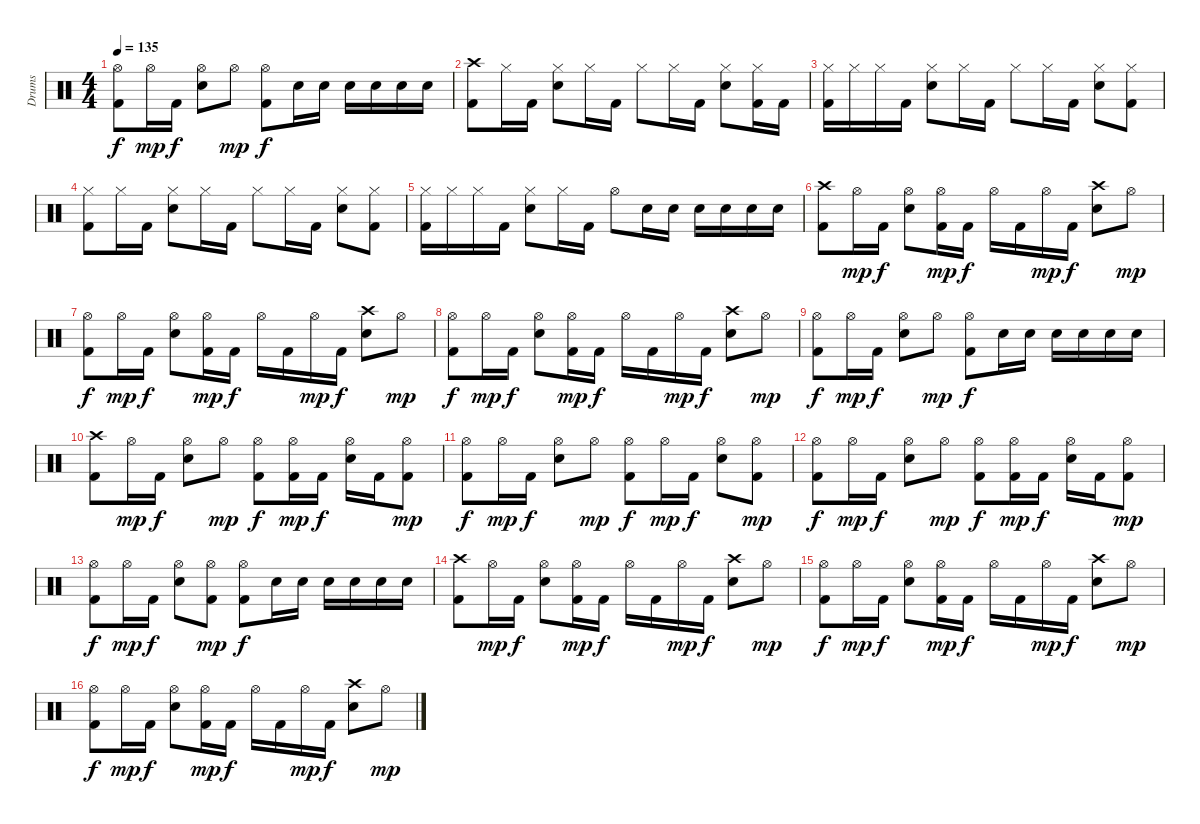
\track ("Drums" "Drums") {instrument percussion}
\staff {score}
\articulation defaults
\ts (4 4)
\tempo 135
\clef neutral
\ks c
("Hi-Hat (open)" "Kick (hit) 2").8{dy f} "Hi-Hat (open)".16{dy mp} "Kick (hit) 2".16{dy f} ("Hi-Hat (open)" "Electric Snare (hit)").8 "Hi-Hat (open)".8{dy mp} ("Hi-Hat (open)" "Kick (hit) 2").8{dy f} "Electric Snare (hit)".16 "Electric Snare (hit)".16 "Electric Snare (hit)".16 "Electric Snare (hit)".16 "Electric Snare (hit)".16 "Electric Snare (hit)".16 |
("Crash high (hit)" "Kick (hit) 2").8 "Hi-Hat (closed)".16 "Kick (hit) 2".16 ("Hi-Hat (closed)" "Electric Snare (hit)").8 "Hi-Hat (closed)".16 "Kick (hit) 2".16 "Hi-Hat (closed)".8 "Hi-Hat (closed)".16 "Kick (hit) 2".16 ("Hi-Hat (closed)" "Electric Snare (hit)").8 ("Hi-Hat (closed)" "Kick (hit) 2").16 "Kick (hit) 2".16 |
("Hi-Hat (closed)" "Kick (hit) 2").16 "Hi-Hat (closed)".16 "Hi-Hat (closed)".16 "Kick (hit) 2".16 ("Hi-Hat (closed)" "Electric Snare (hit)").8 "Hi-Hat (closed)".16 "Kick (hit) 2".16 "Hi-Hat (closed)".8 "Hi-Hat (closed)".16 "Kick (hit) 2".16 ("Hi-Hat (closed)" "Electric Snare (hit)").8 ("Hi-Hat (closed)" "Kick (hit) 2").8 |
("Hi-Hat (closed)" "Kick (hit) 2").8 "Hi-Hat (closed)".16 "Kick (hit) 2".16 ("Hi-Hat (closed)" "Electric Snare (hit)").8 "Hi-Hat (closed)".16 "Kick (hit) 2".16 "Hi-Hat (closed)".8 "Hi-Hat (closed)".16 "Kick (hit) 2".16 ("Hi-Hat (closed)" "Electric Snare (hit)").8 ("Hi-Hat (closed)" "Kick (hit) 2").8 |
("Hi-Hat (closed)" "Kick (hit) 2").16 "Hi-Hat (closed)".16 "Hi-Hat (closed)".16 "Kick (hit) 2".16 ("Hi-Hat (closed)" "Electric Snare (hit)").8 "Hi-Hat (closed)".16 "Kick (hit) 2".16 "Hi-Hat (open)".8 "Electric Snare (hit)".16 "Electric Snare (hit)".16 "Electric Snare (hit)".16 "Electric Snare (hit)".16 "Electric Snare (hit)".16 "Electric Snare (hit)".16 |
("Crash high (hit)" "Kick (hit) 2").8 "Hi-Hat (open)".16{dy mp} "Kick (hit) 2".16{dy f} ("Hi-Hat (open)" "Electric Snare (hit)").8 ("Hi-Hat (open)" "Kick (hit) 2").16{dy mp} "Kick (hit) 2".16{dy f} "Hi-Hat (open)".16 "Kick (hit) 2".16 "Hi-Hat (open)".16{dy mp} "Kick (hit) 2".16{dy f} ("Crash high (hit)" "Electric Snare (hit)").8 "Hi-Hat (open)".8{dy mp} |
("Hi-Hat (open)" "Kick (hit) 2").8{dy f} "Hi-Hat (open)".16{dy mp} "Kick (hit) 2".16{dy f} ("Hi-Hat (open)" "Electric Snare (hit)").8 ("Hi-Hat (open)" "Kick (hit) 2").16{dy mp} "Kick (hit) 2".16{dy f} "Hi-Hat (open)".16 "Kick (hit) 2".16 "Hi-Hat (open)".16{dy mp} "Kick (hit) 2".16{dy f} ("Crash high (hit)" "Electric Snare (hit)").8 "Hi-Hat (open)".8{dy mp} |
("Hi-Hat (open)" "Kick (hit) 2").8{dy f} "Hi-Hat (open)".16{dy mp} "Kick (hit) 2".16{dy f} ("Hi-Hat (open)" "Electric Snare (hit)").8 ("Hi-Hat (open)" "Kick (hit) 2").16{dy mp} "Kick (hit) 2".16{dy f} "Hi-Hat (open)".16 "Kick (hit) 2".16 "Hi-Hat (open)".16{dy mp} "Kick (hit) 2".16{dy f} ("Crash high (hit)" "Electric Snare (hit)").8 "Hi-Hat (open)".8{dy mp} |
("Hi-Hat (open)" "Kick (hit) 2").8{dy f} "Hi-Hat (open)".16{dy mp} "Kick (hit) 2".16{dy f} ("Hi-Hat (open)" "Electric Snare (hit)").8 "Hi-Hat (open)".8{dy mp} ("Hi-Hat (open)" "Kick (hit) 2").8{dy f} "Electric Snare (hit)".16 "Electric Snare (hit)".16 "Electric Snare (hit)".16 "Electric Snare (hit)".16 "Electric Snare (hit)".16 "Electric Snare (hit)".16 |
("Crash high (hit)" "Kick (hit) 2").8 "Hi-Hat (open)".16{dy mp} "Kick (hit) 2".16{dy f} ("Hi-Hat (open)" "Electric Snare (hit)").8 "Hi-Hat (open)".8{dy mp} ("Hi-Hat (open)" "Kick (hit) 2").8{dy f} ("Hi-Hat (open)" "Kick (hit) 2").16{dy mp} "Kick (hit) 2".16{dy f} ("Hi-Hat (open)" "Electric Snare (hit)").16 "Kick (hit) 2".16 ("Hi-Hat (open)" "Kick (hit) 2").8{dy mp} |
("Hi-Hat (open)" "Kick (hit) 2").8{dy f} "Hi-Hat (open)".16{dy mp} "Kick (hit) 2".16{dy f} ("Hi-Hat (open)" "Electric Snare (hit)").8 "Hi-Hat (open)".8{dy mp} ("Hi-Hat (open)" "Kick (hit) 2").8{dy f} "Hi-Hat (open)".16{dy mp} "Kick (hit) 2".16{dy f} ("Hi-Hat (open)" "Electric Snare (hit)").8 ("Hi-Hat (open)" "Kick (hit) 2").8{dy mp} |
("Hi-Hat (open)" "Kick (hit) 2").8{dy f} "Hi-Hat (open)".16{dy mp} "Kick (hit) 2".16{dy f} ("Hi-Hat (open)" "Electric Snare (hit)").8 "Hi-Hat (open)".8{dy mp} ("Hi-Hat (open)" "Kick (hit) 2").8{dy f} ("Hi-Hat (open)" "Kick (hit) 2").16{dy mp} "Kick (hit) 2".16{dy f} ("Hi-Hat (open)" "Electric Snare (hit)").16 "Kick (hit) 2".16 ("Hi-Hat (open)" "Kick (hit) 2").8{dy mp} |
("Hi-Hat (open)" "Kick (hit) 2").8{dy f} "Hi-Hat (open)".16{dy mp} "Kick (hit) 2".16{dy f} ("Hi-Hat (open)" "Electric Snare (hit)").8 ("Hi-Hat (open)" "Kick (hit) 2").8{dy mp} ("Hi-Hat (open)" "Kick (hit) 2").8{dy f} "Electric Snare (hit)".16 "Electric Snare (hit)".16 "Electric Snare (hit)".16 "Electric Snare (hit)".16 "Electric Snare (hit)".16 "Electric Snare (hit)".16 |
("Crash high (hit)" "Kick (hit) 2").8 "Hi-Hat (open)".16{dy mp} "Kick (hit) 2".16{dy f} ("Hi-Hat (open)" "Electric Snare (hit)").8 ("Hi-Hat (open)" "Kick (hit) 2").16{dy mp} "Kick (hit) 2".16{dy f} "Hi-Hat (open)".16 "Kick (hit) 2".16 "Hi-Hat (open)".16{dy mp} "Kick (hit) 2".16{dy f} ("Crash high (hit)" "Electric Snare (hit)").8 "Hi-Hat (open)".8{dy mp} |
("Hi-Hat (open)" "Kick (hit) 2").8{dy f} "Hi-Hat (open)".16{dy mp} "Kick (hit) 2".16{dy f} ("Hi-Hat (open)" "Electric Snare (hit)").8 ("Hi-Hat (open)" "Kick (hit) 2").16{dy mp} "Kick (hit) 2".16{dy f} "Hi-Hat (open)".16 "Kick (hit) 2".16 "Hi-Hat (open)".16{dy mp} "Kick (hit) 2".16{dy f} ("Crash high (hit)" "Electric Snare (hit)").8 "Hi-Hat (open)".8{dy mp} |
("Hi-Hat (open)" "Kick (hit) 2").8{dy f} "Hi-Hat (open)".16{dy mp} "Kick (hit) 2".16{dy f} ("Hi-Hat (open)" "Electric Snare (hit)").8 ("Hi-Hat (open)" "Kick (hit) 2").16{dy mp} "Kick (hit) 2".16{dy f} "Hi-Hat (open)".16 "Kick (hit) 2".16 "Hi-Hat (open)".16{dy mp} "Kick (hit) 2".16{dy f} ("Crash high (hit)" "Electric Snare (hit)").8 "Hi-Hat (open)".8{dy mp}
